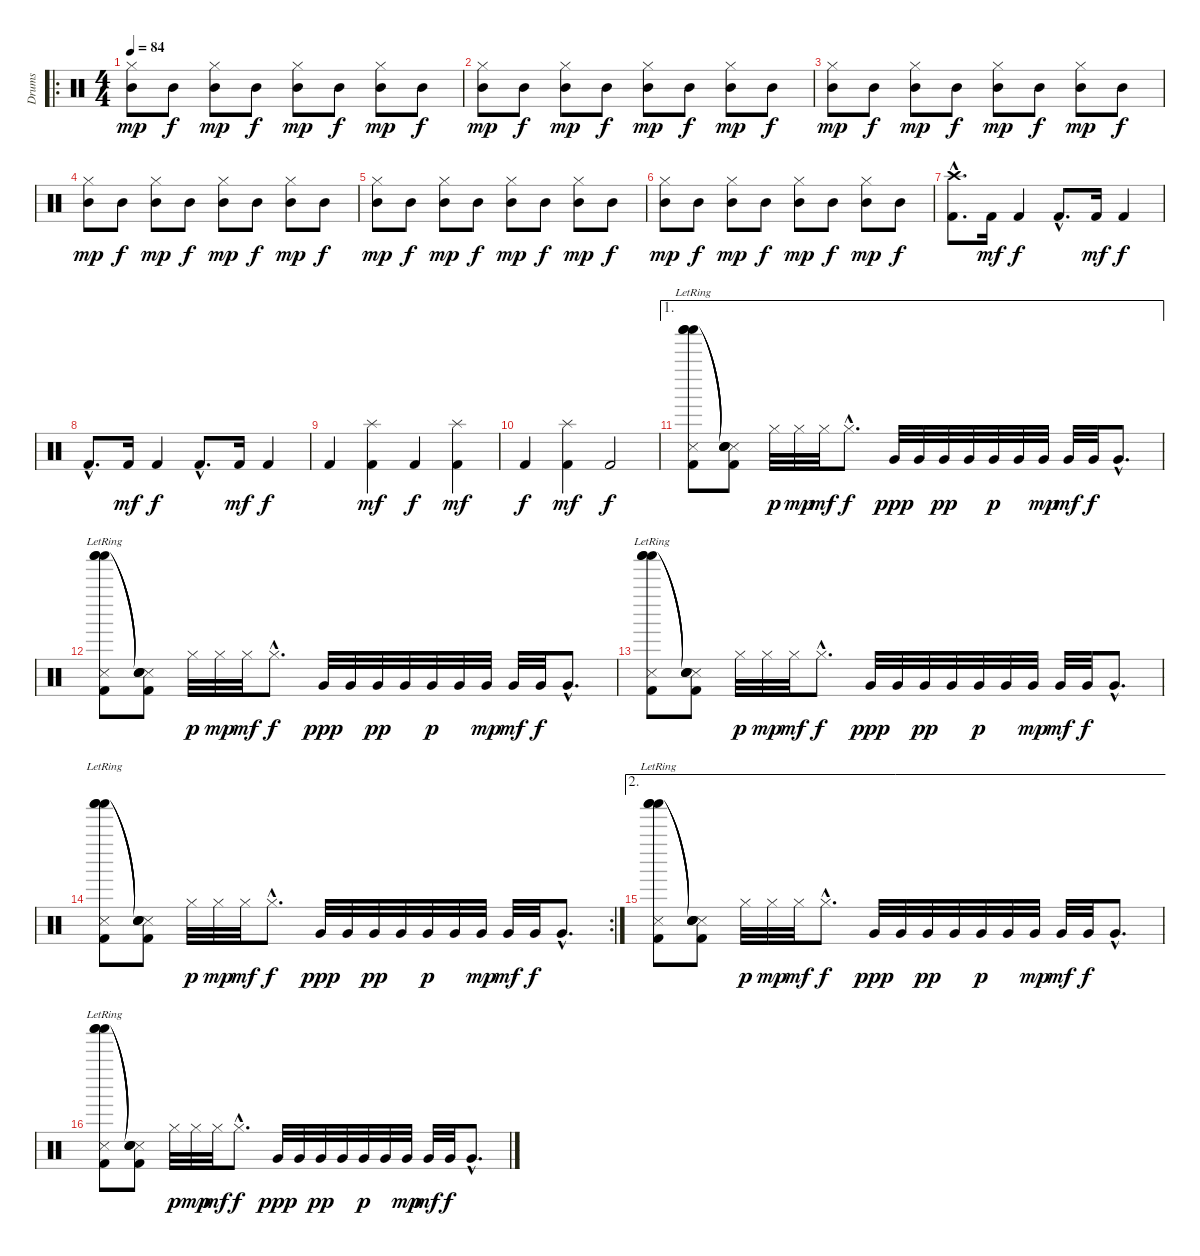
\track ("Drums" "Drums") {instrument percussion}
\staff {score}
\articulation defaults
\ro
\ts (4 4)
\tempo 84
\clef neutral
\ks c
("Mid Tom (hit)" "Hi-Hat (closed)").8{dy mp} "Mid Tom (hit)".8{dy f} ("Mid Tom (hit)" "Hi-Hat (closed)").8{dy mp} "Mid Tom (hit)".8{dy f} ("Mid Tom (hit)" "Hi-Hat (closed)").8{dy mp} "Mid Tom (hit)".8{dy f} ("Mid Tom (hit)" "Hi-Hat (closed)").8{dy mp} "Mid Tom (hit)".8{dy f} |
("Mid Tom (hit)" "Hi-Hat (closed)").8{dy mp} "Mid Tom (hit)".8{dy f} ("Mid Tom (hit)" "Hi-Hat (closed)").8{dy mp} "Mid Tom (hit)".8{dy f} ("Mid Tom (hit)" "Hi-Hat (closed)").8{dy mp} "Mid Tom (hit)".8{dy f} ("Mid Tom (hit)" "Hi-Hat (closed)").8{dy mp} "Mid Tom (hit)".8{dy f} |
("Mid Tom (hit)" "Hi-Hat (closed)").8{dy mp} "Mid Tom (hit)".8{dy f} ("Mid Tom (hit)" "Hi-Hat (closed)").8{dy mp} "Mid Tom (hit)".8{dy f} ("Mid Tom (hit)" "Hi-Hat (closed)").8{dy mp} "Mid Tom (hit)".8{dy f} ("Mid Tom (hit)" "Hi-Hat (closed)").8{dy mp} "Mid Tom (hit)".8{dy f} |
("Mid Tom (hit)" "Hi-Hat (closed)").8{dy mp} "Mid Tom (hit)".8{dy f} ("Mid Tom (hit)" "Hi-Hat (closed)").8{dy mp} "Mid Tom (hit)".8{dy f} ("Mid Tom (hit)" "Hi-Hat (closed)").8{dy mp} "Mid Tom (hit)".8{dy f} ("Mid Tom (hit)" "Hi-Hat (closed)").8{dy mp} "Mid Tom (hit)".8{dy f} |
("Mid Tom (hit)" "Hi-Hat (closed)").8{dy mp} "Mid Tom (hit)".8{dy f} ("Mid Tom (hit)" "Hi-Hat (closed)").8{dy mp} "Mid Tom (hit)".8{dy f} ("Mid Tom (hit)" "Hi-Hat (closed)").8{dy mp} "Mid Tom (hit)".8{dy f} ("Mid Tom (hit)" "Hi-Hat (closed)").8{dy mp} "Mid Tom (hit)".8{dy f} |
("Mid Tom (hit)" "Hi-Hat (closed)").8{dy mp} "Mid Tom (hit)".8{dy f} ("Mid Tom (hit)" "Hi-Hat (closed)").8{dy mp} "Mid Tom (hit)".8{dy f} ("Mid Tom (hit)" "Hi-Hat (closed)").8{dy mp} "Mid Tom (hit)".8{dy f} ("Mid Tom (hit)" "Hi-Hat (closed)").8{dy mp} "Mid Tom (hit)".8{dy f} |
("Kick (hit) 2"{hac} "Crash high (hit)"{hac}).8{d} "Kick (hit) 2".16{dy mf} "Kick (hit) 2".4{dy f} "Kick (hit) 2"{hac}.8{d} "Kick (hit) 2".16{dy mf} "Kick (hit) 2".4{dy f} |
"Kick (hit) 2"{hac}.8{d} "Kick (hit) 2".16{dy mf} "Kick (hit) 2".4{dy f} "Kick (hit) 2"{hac}.8{d} "Kick (hit) 2".16{dy mf} "Kick (hit) 2".4{dy f} |
"Kick (hit) 2".4 ("Kick (hit) 2" "Splash (hit)").4{dy mf} "Kick (hit) 2".4{dy f} ("Kick (hit) 2" "Splash (hit)").4{dy mf} |
"Kick (hit) 2".4{dy f} ("Kick (hit) 2" "Splash (hit)").4{dy mf} "Kick (hit) 2".2{dy f} |
\ae 1
("Snare (side stick) 3" "Kick (hit) 2" "Shaker (hit)"{lr} "Shaker (hit)"{lr} "Shaker (hit)"{lr}).8 ("Snare (side stick) 3" "Kick (hit) 2" "Snare (hit)"{t} "Snare (hit)"{t} "Snare (hit)"{t}).8 "Hi-Hat (closed)".32{dy p} "Hi-Hat (closed)".32{dy mp} "Hi-Hat (closed)".32{dy mf} "Hi-Hat (closed)"{hac}.8{d dy f} "Very Low Tom (hit)".32{dy ppp} "Very Low Tom (hit)".32 "Very Low Tom (hit)".32{dy pp} "Very Low Tom (hit)".32 "Very Low Tom (hit)".32{dy p} "Very Low Tom (hit)".32 "Very Low Tom (hit)".32{dy mp} "Very Low Tom (hit)".32{dy mf} "Very Low Tom (hit)".32{dy f} "Very Low Tom (hit)"{hac}.8{d} |
("Snare (side stick) 3" "Kick (hit) 2" "Shaker (hit)"{lr} "Shaker (hit)"{lr} "Shaker (hit)"{lr}).8 ("Snare (side stick) 3" "Kick (hit) 2" "Snare (hit)"{t} "Snare (hit)"{t} "Snare (hit)"{t}).8 "Hi-Hat (closed)".32{dy p} "Hi-Hat (closed)".32{dy mp} "Hi-Hat (closed)".32{dy mf} "Hi-Hat (closed)"{hac}.8{d dy f} "Very Low Tom (hit)".32{dy ppp} "Very Low Tom (hit)".32 "Very Low Tom (hit)".32{dy pp} "Very Low Tom (hit)".32 "Very Low Tom (hit)".32{dy p} "Very Low Tom (hit)".32 "Very Low Tom (hit)".32{dy mp} "Very Low Tom (hit)".32{dy mf} "Very Low Tom (hit)".32{dy f} "Very Low Tom (hit)"{hac}.8{d} |
("Snare (side stick) 3" "Kick (hit) 2" "Shaker (hit)"{lr} "Shaker (hit)"{lr} "Shaker (hit)"{lr}).8 ("Snare (side stick) 3" "Kick (hit) 2" "Snare (hit)"{t} "Snare (hit)"{t} "Snare (hit)"{t}).8 "Hi-Hat (closed)".32{dy p} "Hi-Hat (closed)".32{dy mp} "Hi-Hat (closed)".32{dy mf} "Hi-Hat (closed)"{hac}.8{d dy f} "Very Low Tom (hit)".32{dy ppp} "Very Low Tom (hit)".32 "Very Low Tom (hit)".32{dy pp} "Very Low Tom (hit)".32 "Very Low Tom (hit)".32{dy p} "Very Low Tom (hit)".32 "Very Low Tom (hit)".32{dy mp} "Very Low Tom (hit)".32{dy mf} "Very Low Tom (hit)".32{dy f} "Very Low Tom (hit)"{hac}.8{d} |
\rc 2
("Snare (side stick) 3" "Kick (hit) 2" "Shaker (hit)"{lr} "Shaker (hit)"{lr} "Shaker (hit)"{lr}).8 ("Snare (side stick) 3" "Kick (hit) 2" "Snare (hit)"{t} "Snare (hit)"{t} "Snare (hit)"{t}).8 "Hi-Hat (closed)".32{dy p} "Hi-Hat (closed)".32{dy mp} "Hi-Hat (closed)".32{dy mf} "Hi-Hat (closed)"{hac}.8{d dy f} "Very Low Tom (hit)".32{dy ppp} "Very Low Tom (hit)".32 "Very Low Tom (hit)".32{dy pp} "Very Low Tom (hit)".32 "Very Low Tom (hit)".32{dy p} "Very Low Tom (hit)".32 "Very Low Tom (hit)".32{dy mp} "Very Low Tom (hit)".32{dy mf} "Very Low Tom (hit)".32{dy f} "Very Low Tom (hit)"{hac}.8{d} |
\ae 2
("Snare (side stick) 3" "Kick (hit) 2" "Shaker (hit)"{lr} "Shaker (hit)"{lr} "Shaker (hit)"{lr}).8 ("Snare (side stick) 3" "Kick (hit) 2" "Snare (hit)"{t} "Snare (hit)"{t} "Snare (hit)"{t}).8 "Hi-Hat (closed)".32{dy p} "Hi-Hat (closed)".32{dy mp} "Hi-Hat (closed)".32{dy mf} "Hi-Hat (closed)"{hac}.8{d dy f} "Very Low Tom (hit)".32{dy ppp} "Very Low Tom (hit)".32 "Very Low Tom (hit)".32{dy pp} "Very Low Tom (hit)".32 "Very Low Tom (hit)".32{dy p} "Very Low Tom (hit)".32 "Very Low Tom (hit)".32{dy mp} "Very Low Tom (hit)".32{dy mf} "Very Low Tom (hit)".32{dy f} "Very Low Tom (hit)"{hac}.8{d} |
("Snare (side stick) 3" "Kick (hit) 2" "Shaker (hit)"{lr} "Shaker (hit)"{lr} "Shaker (hit)"{lr}).8 ("Snare (side stick) 3" "Kick (hit) 2" "Snare (hit)"{t} "Snare (hit)"{t} "Snare (hit)"{t}).8 "Hi-Hat (closed)".32{dy p} "Hi-Hat (closed)".32{dy mp} "Hi-Hat (closed)".32{dy mf} "Hi-Hat (closed)"{hac}.8{d dy f} "Very Low Tom (hit)".32{dy ppp} "Very Low Tom (hit)".32 "Very Low Tom (hit)".32{dy pp} "Very Low Tom (hit)".32 "Very Low Tom (hit)".32{dy p} "Very Low Tom (hit)".32 "Very Low Tom (hit)".32{dy mp} "Very Low Tom (hit)".32{dy mf} "Very Low Tom (hit)".32{dy f} "Very Low Tom (hit)"{hac}.8{d}
